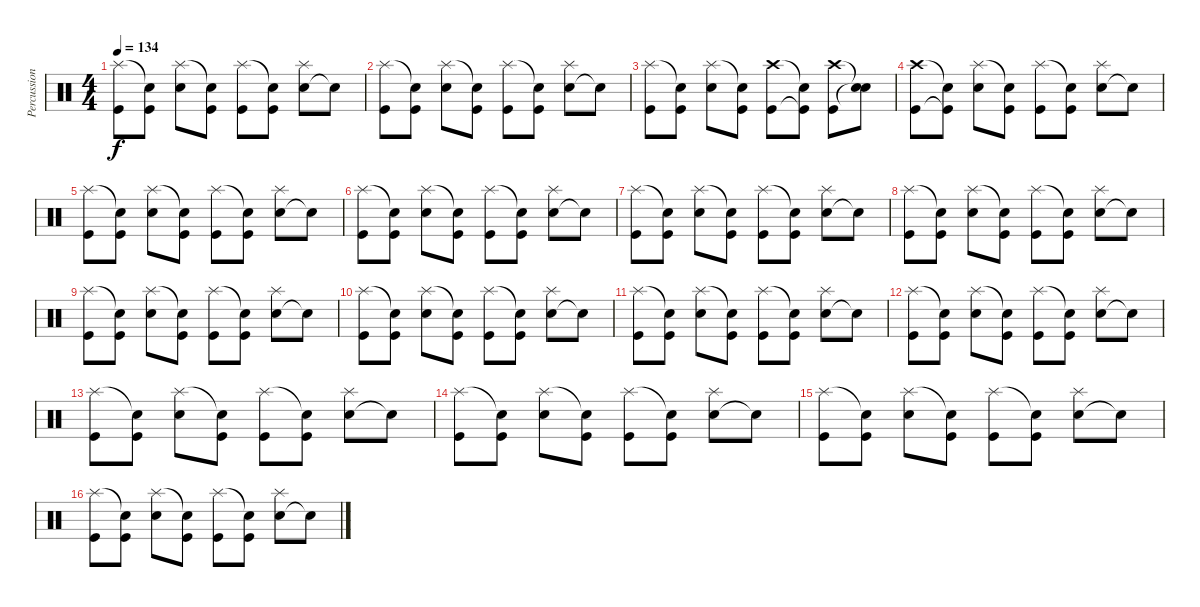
\track ("Percussion" "Percussion") {instrument percussion}
\staff {score}
\articulation defaults
\ts (4 4)
\tempo 134
\clef neutral
\ks c
("Kick (hit)" "Splash (hit)").8{dy f} ("Kick (hit)" "Snare (hit)"{t}).8 ("Snare (hit) 2" "Splash (hit)").8 ("Kick (hit)" "Snare (hit)"{t}).8 ("Kick (hit)" "Splash (hit)").8 ("Kick (hit)" "Snare (hit)"{t}).8 ("Snare (hit) 2" "Splash (hit)").8 "Snare (hit)"{t}.8 |
("Kick (hit)" "Splash (hit)").8 ("Kick (hit)" "Snare (hit)"{t}).8 ("Snare (hit) 2" "Splash (hit)").8 ("Kick (hit)" "Snare (hit)"{t}).8 ("Kick (hit)" "Splash (hit)").8 ("Kick (hit)" "Snare (hit)"{t}).8 ("Snare (hit) 2" "Splash (hit)").8 "Snare (hit)"{t}.8 |
("Kick (hit)" "Splash (hit)").8 ("Kick (hit)" "Snare (hit)"{t}).8 ("Snare (hit) 2" "Splash (hit)").8 ("Kick (hit)" "Snare (hit)"{t}).8 ("Kick (hit)" "Crash high (hit)").8 ("Kick (hit)"{t} "Snare (hit)"{t}).8 ("Kick (hit)" "Crash high (hit)").8 ("Snare (hit)"{t} "Snare (hit)"{t}).8 |
("Kick (hit)" "Crash high (hit)").8 ("Kick (hit)"{t} "Snare (hit)"{t}).8 ("Snare (hit) 2" "Splash (hit)").8 ("Kick (hit)" "Snare (hit)"{t}).8 ("Kick (hit)" "Splash (hit)").8 ("Kick (hit)" "Snare (hit)"{t}).8 ("Snare (hit) 2" "Splash (hit)").8 "Snare (hit)"{t}.8 |
("Kick (hit)" "Splash (hit)").8 ("Kick (hit)" "Snare (hit)"{t}).8 ("Snare (hit) 2" "Splash (hit)").8 ("Kick (hit)" "Snare (hit)"{t}).8 ("Kick (hit)" "Splash (hit)").8 ("Kick (hit)" "Snare (hit)"{t}).8 ("Snare (hit) 2" "Splash (hit)").8 "Snare (hit)"{t}.8 |
("Kick (hit)" "Splash (hit)").8 ("Kick (hit)" "Snare (hit)"{t}).8 ("Snare (hit) 2" "Splash (hit)").8 ("Kick (hit)" "Snare (hit)"{t}).8 ("Kick (hit)" "Splash (hit)").8 ("Kick (hit)" "Snare (hit)"{t}).8 ("Snare (hit) 2" "Splash (hit)").8 "Snare (hit)"{t}.8 |
("Kick (hit)" "Splash (hit)").8 ("Kick (hit)" "Snare (hit)"{t}).8 ("Snare (hit) 2" "Splash (hit)").8 ("Kick (hit)" "Snare (hit)"{t}).8 ("Kick (hit)" "Splash (hit)").8 ("Kick (hit)" "Snare (hit)"{t}).8 ("Snare (hit) 2" "Splash (hit)").8 "Snare (hit)"{t}.8 |
("Kick (hit)" "Splash (hit)").8 ("Kick (hit)" "Snare (hit)"{t}).8 ("Snare (hit) 2" "Splash (hit)").8 ("Kick (hit)" "Snare (hit)"{t}).8 ("Kick (hit)" "Splash (hit)").8 ("Kick (hit)" "Snare (hit)"{t}).8 ("Snare (hit) 2" "Splash (hit)").8 "Snare (hit)"{t}.8 |
("Kick (hit)" "Splash (hit)").8 ("Kick (hit)" "Snare (hit)"{t}).8 ("Snare (hit) 2" "Splash (hit)").8 ("Kick (hit)" "Snare (hit)"{t}).8 ("Kick (hit)" "Splash (hit)").8 ("Kick (hit)" "Snare (hit)"{t}).8 ("Snare (hit) 2" "Splash (hit)").8 "Snare (hit)"{t}.8 |
("Kick (hit)" "Splash (hit)").8 ("Kick (hit)" "Snare (hit)"{t}).8 ("Snare (hit) 2" "Splash (hit)").8 ("Kick (hit)" "Snare (hit)"{t}).8 ("Kick (hit)" "Splash (hit)").8 ("Kick (hit)" "Snare (hit)"{t}).8 ("Snare (hit) 2" "Splash (hit)").8 "Snare (hit)"{t}.8 |
("Kick (hit)" "Splash (hit)").8 ("Kick (hit)" "Snare (hit)"{t}).8 ("Snare (hit) 2" "Splash (hit)").8 ("Kick (hit)" "Snare (hit)"{t}).8 ("Kick (hit)" "Splash (hit)").8 ("Kick (hit)" "Snare (hit)"{t}).8 ("Snare (hit) 2" "Splash (hit)").8 "Snare (hit)"{t}.8 |
("Kick (hit)" "Splash (hit)").8 ("Kick (hit)" "Snare (hit)"{t}).8 ("Snare (hit) 2" "Splash (hit)").8 ("Kick (hit)" "Snare (hit)"{t}).8 ("Kick (hit)" "Splash (hit)").8 ("Kick (hit)" "Snare (hit)"{t}).8 ("Snare (hit) 2" "Splash (hit)").8 "Snare (hit)"{t}.8 |
("Kick (hit)" "Splash (hit)").8 ("Kick (hit)" "Snare (hit)"{t}).8 ("Snare (hit) 2" "Splash (hit)").8 ("Kick (hit)" "Snare (hit)"{t}).8 ("Kick (hit)" "Splash (hit)").8 ("Kick (hit)" "Snare (hit)"{t}).8 ("Snare (hit) 2" "Splash (hit)").8 "Snare (hit)"{t}.8 |
("Kick (hit)" "Splash (hit)").8 ("Kick (hit)" "Snare (hit)"{t}).8 ("Snare (hit) 2" "Splash (hit)").8 ("Kick (hit)" "Snare (hit)"{t}).8 ("Kick (hit)" "Splash (hit)").8 ("Kick (hit)" "Snare (hit)"{t}).8 ("Snare (hit) 2" "Splash (hit)").8 "Snare (hit)"{t}.8 |
("Kick (hit)" "Splash (hit)").8 ("Kick (hit)" "Snare (hit)"{t}).8 ("Snare (hit) 2" "Splash (hit)").8 ("Kick (hit)" "Snare (hit)"{t}).8 ("Kick (hit)" "Splash (hit)").8 ("Kick (hit)" "Snare (hit)"{t}).8 ("Snare (hit) 2" "Splash (hit)").8 "Snare (hit)"{t}.8 |
("Kick (hit)" "Splash (hit)").8 ("Kick (hit)" "Snare (hit)"{t}).8 ("Snare (hit) 2" "Splash (hit)").8 ("Kick (hit)" "Snare (hit)"{t}).8 ("Kick (hit)" "Splash (hit)").8 ("Kick (hit)" "Snare (hit)"{t}).8 ("Snare (hit) 2" "Splash (hit)").8 "Snare (hit)"{t}.8
